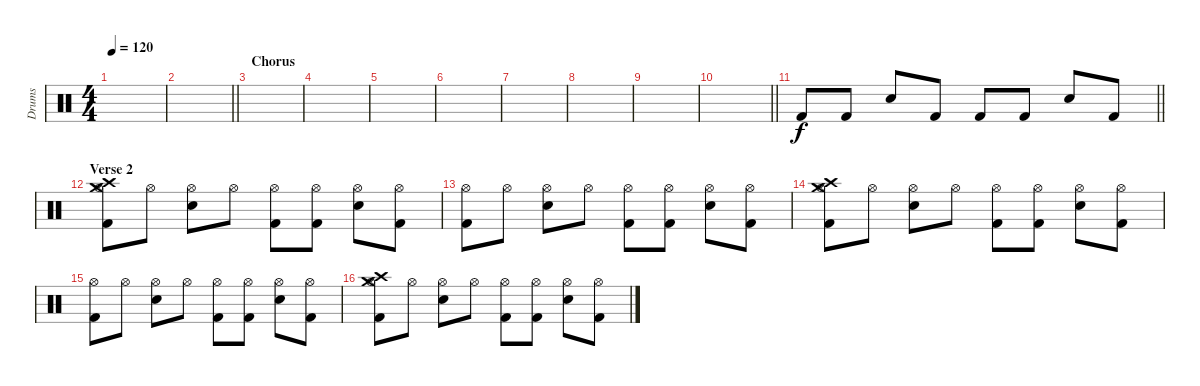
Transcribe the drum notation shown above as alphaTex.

\track ("Drums" "Drums") {instrument percussion}
\staff {score}
\articulation defaults
\ts (4 4)
\tempo 120
\clef neutral
\ks c
|
\barLineRight lightlight
|
\section ("" "Chorus")
|
|
|
|
|
|
|
\barLineRight lightlight
|
\barLineRight lightlight "Kick (hit) 2".8 "Kick (hit) 2".8 "Snare (hit) 2".8 "Kick (hit) 2".8 "Kick (hit) 2".8 "Kick (hit) 2".8 "Snare (hit) 2".8 "Kick (hit) 2".8
|
\section ("" "Verse 2")
("Crash high (hit)" "Crash medium (hit)" "Kick (hit) 2" "Hi-Hat (open)").8 "Hi-Hat (open)".8 ("Snare (hit) 2" "Hi-Hat (open)").8 "Hi-Hat (open)".8 ("Kick (hit) 2" "Hi-Hat (open)").8 ("Kick (hit) 2" "Hi-Hat (open)").8 ("Snare (hit) 2" "Hi-Hat (open)").8 ("Kick (hit) 2" "Hi-Hat (open)").8 |
("Kick (hit) 2" "Hi-Hat (open)").8 "Hi-Hat (open)".8 ("Snare (hit) 2" "Hi-Hat (open)").8 "Hi-Hat (open)".8 ("Kick (hit) 2" "Hi-Hat (open)").8 ("Kick (hit) 2" "Hi-Hat (open)").8 ("Snare (hit) 2" "Hi-Hat (open)").8 ("Kick (hit) 2" "Hi-Hat (open)").8 |
("Crash high (hit)" "Crash medium (hit)" "Kick (hit) 2" "Hi-Hat (open)").8 "Hi-Hat (open)".8 ("Snare (hit) 2" "Hi-Hat (open)").8 "Hi-Hat (open)".8 ("Kick (hit) 2" "Hi-Hat (open)").8 ("Kick (hit) 2" "Hi-Hat (open)").8 ("Snare (hit) 2" "Hi-Hat (open)").8 ("Kick (hit) 2" "Hi-Hat (open)").8 |
("Kick (hit) 2" "Hi-Hat (open)").8 "Hi-Hat (open)".8 ("Snare (hit) 2" "Hi-Hat (open)").8 "Hi-Hat (open)".8 ("Kick (hit) 2" "Hi-Hat (open)").8 ("Kick (hit) 2" "Hi-Hat (open)").8 ("Snare (hit) 2" "Hi-Hat (open)").8 ("Kick (hit) 2" "Hi-Hat (open)").8 |
("Crash high (hit)" "Crash medium (hit)" "Kick (hit) 2" "Hi-Hat (open)").8 "Hi-Hat (open)".8 ("Snare (hit) 2" "Hi-Hat (open)").8 "Hi-Hat (open)".8 ("Kick (hit) 2" "Hi-Hat (open)").8 ("Kick (hit) 2" "Hi-Hat (open)").8 ("Snare (hit) 2" "Hi-Hat (open)").8 ("Kick (hit) 2" "Hi-Hat (open)").8
